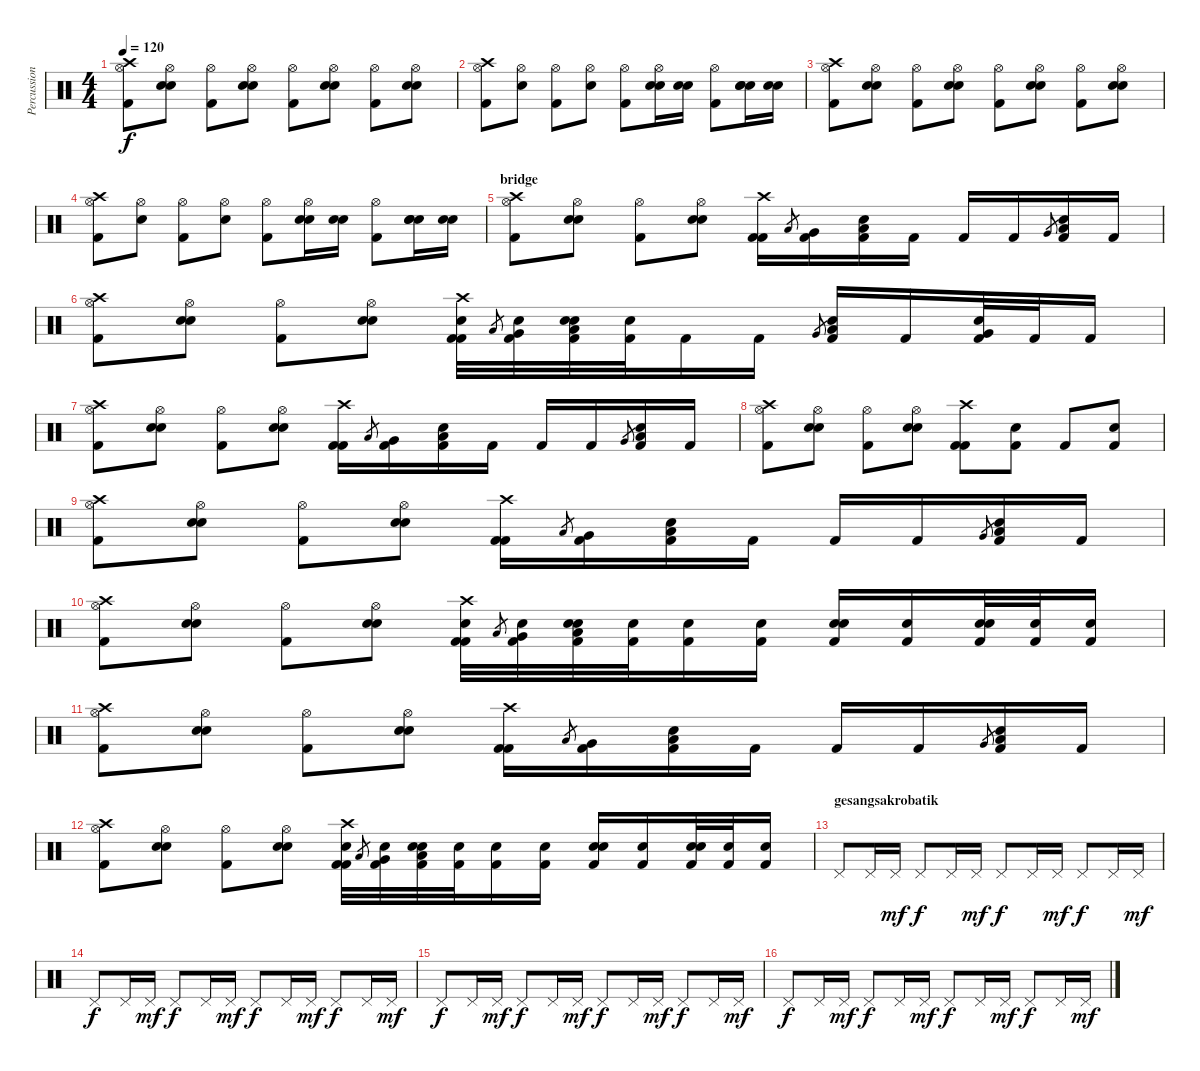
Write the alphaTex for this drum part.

\track ("Percussion" "Percussion") {instrument percussion}
\staff {score}
\articulation defaults
\ts (4 4)
\tempo 120
\clef neutral
\ks c
("Hi-Hat (open)" "Crash high (hit)" "Kick (hit) 2").8{dy f} ("Hi-Hat (open)" "Electric Snare (hit)" "Snare (hit) 2").8 ("Hi-Hat (open)" "Kick (hit) 2").8 ("Hi-Hat (open)" "Electric Snare (hit)" "Snare (hit) 2").8 ("Hi-Hat (open)" "Kick (hit) 2").8 ("Hi-Hat (open)" "Electric Snare (hit)" "Snare (hit) 2").8 ("Hi-Hat (open)" "Kick (hit) 2").8 ("Hi-Hat (open)" "Electric Snare (hit)" "Snare (hit) 2").8 |
("Hi-Hat (open)" "Crash high (hit)" "Kick (hit) 2").8 ("Hi-Hat (open)" "Electric Snare (hit)").8 ("Hi-Hat (open)" "Kick (hit) 2").8 ("Hi-Hat (open)" "Electric Snare (hit)").8 ("Hi-Hat (open)" "Kick (hit) 2").8 ("Hi-Hat (open)" "Electric Snare (hit)" "Snare (hit) 2").16 ("Electric Snare (hit)" "Snare (hit) 2").16 ("Hi-Hat (open)" "Kick (hit) 2").8 ("Electric Snare (hit)" "Electric Snare (hit)" "Snare (hit) 2").16 ("Electric Snare (hit)" "Snare (hit) 2").16 |
("Hi-Hat (open)" "Crash high (hit)" "Kick (hit) 2").8 ("Hi-Hat (open)" "Electric Snare (hit)" "Snare (hit) 2").8 ("Hi-Hat (open)" "Kick (hit) 2").8 ("Hi-Hat (open)" "Electric Snare (hit)" "Snare (hit) 2").8 ("Hi-Hat (open)" "Kick (hit) 2").8 ("Hi-Hat (open)" "Electric Snare (hit)" "Snare (hit) 2").8 ("Hi-Hat (open)" "Kick (hit) 2").8 ("Hi-Hat (open)" "Electric Snare (hit)" "Snare (hit) 2").8 |
("Hi-Hat (open)" "Crash high (hit)" "Kick (hit) 2").8 ("Hi-Hat (open)" "Electric Snare (hit)").8 ("Hi-Hat (open)" "Kick (hit) 2").8 ("Hi-Hat (open)" "Electric Snare (hit)").8 ("Hi-Hat (open)" "Kick (hit) 2").8 ("Hi-Hat (open)" "Electric Snare (hit)" "Snare (hit) 2").16 ("Electric Snare (hit)" "Snare (hit) 2").16 ("Hi-Hat (open)" "Kick (hit) 2").8 ("Electric Snare (hit)" "Electric Snare (hit)" "Snare (hit) 2").16 ("Electric Snare (hit)" "Snare (hit) 2").16 |
\section ("" "bridge")
("Hi-Hat (open)" "Crash high (hit)" "Kick (hit) 2").8 ("Hi-Hat (open)" "Electric Snare (hit)" "Snare (hit) 2").8 ("Hi-Hat (open)" "Kick (hit) 2").8 ("Hi-Hat (open)" "Electric Snare (hit)" "Snare (hit) 2").8 ("Crash high (hit)" "Kick (hit) 2" "Kick (hit) 2").16 "Low Tom (hit)".8{gr} ("Very Low Tom (hit)" "Kick (hit) 2").16 ("Low Tom (hit)" "Electric Snare (hit)" "Kick (hit) 2").16 "Kick (hit) 2".16 "Kick (hit) 2".16 "Kick (hit) 2".16 "Very Low Tom (hit)".8{gr} ("Low Tom (hit)" "Electric Snare (hit)" "Kick (hit) 2").16 "Kick (hit) 2".16 |
("Hi-Hat (open)" "Crash high (hit)" "Kick (hit) 2").8 ("Hi-Hat (open)" "Electric Snare (hit)" "Snare (hit) 2").8 ("Hi-Hat (open)" "Kick (hit) 2").8 ("Hi-Hat (open)" "Electric Snare (hit)" "Snare (hit) 2").8 ("Electric Snare (hit)" "Crash high (hit)" "Kick (hit) 2" "Kick (hit) 2").32 "Low Tom (hit)".8{gr} ("Electric Snare (hit)" "Very Low Tom (hit)" "Kick (hit) 2").32 ("Electric Snare (hit)" "Low Tom (hit)" "Electric Snare (hit)" "Kick (hit) 2").32 ("Electric Snare (hit)" "Kick (hit) 2").32 "Kick (hit) 2".16 "Kick (hit) 2".16 "Very Low Tom (hit)".8{gr} ("Low Tom (hit)" "Electric Snare (hit)" "Kick (hit) 2").16 "Kick (hit) 2".16 ("Electric Snare (hit)" "Very Low Tom (hit)" "Kick (hit) 2").32 "Kick (hit) 2".32 "Kick (hit) 2".16 |
("Hi-Hat (open)" "Crash high (hit)" "Kick (hit) 2").8 ("Hi-Hat (open)" "Electric Snare (hit)" "Snare (hit) 2").8 ("Hi-Hat (open)" "Kick (hit) 2").8 ("Hi-Hat (open)" "Electric Snare (hit)" "Snare (hit) 2").8 ("Crash high (hit)" "Kick (hit) 2" "Kick (hit) 2").16 "Low Tom (hit)".8{gr} ("Very Low Tom (hit)" "Kick (hit) 2").16 ("Low Tom (hit)" "Electric Snare (hit)" "Kick (hit) 2").16 "Kick (hit) 2".16 "Kick (hit) 2".16 "Kick (hit) 2".16 "Very Low Tom (hit)".8{gr} ("Low Tom (hit)" "Electric Snare (hit)" "Kick (hit) 2").16 "Kick (hit) 2".16 |
("Hi-Hat (open)" "Crash high (hit)" "Kick (hit) 2").8 ("Hi-Hat (open)" "Electric Snare (hit)" "Snare (hit) 2").8 ("Hi-Hat (open)" "Kick (hit) 2").8 ("Hi-Hat (open)" "Electric Snare (hit)" "Snare (hit) 2").8 ("Crash high (hit)" "Kick (hit) 2" "Kick (hit) 2").8 ("Electric Snare (hit)" "Kick (hit) 2").8 "Kick (hit) 2".8 ("Electric Snare (hit)" "Kick (hit) 2").8 |
("Hi-Hat (open)" "Crash high (hit)" "Kick (hit) 2").8 ("Hi-Hat (open)" "Electric Snare (hit)" "Snare (hit) 2").8 ("Hi-Hat (open)" "Kick (hit) 2").8 ("Hi-Hat (open)" "Electric Snare (hit)" "Snare (hit) 2").8 ("Crash high (hit)" "Kick (hit) 2" "Kick (hit) 2").16 "Low Tom (hit)".8{gr} ("Very Low Tom (hit)" "Kick (hit) 2").16 ("Low Tom (hit)" "Electric Snare (hit)" "Kick (hit) 2").16 "Kick (hit) 2".16 "Kick (hit) 2".16 "Kick (hit) 2".16 "Very Low Tom (hit)".8{gr} ("Low Tom (hit)" "Electric Snare (hit)" "Kick (hit) 2").16 "Kick (hit) 2".16 |
("Hi-Hat (open)" "Crash high (hit)" "Kick (hit) 2").8 ("Hi-Hat (open)" "Electric Snare (hit)" "Snare (hit) 2").8 ("Hi-Hat (open)" "Kick (hit) 2").8 ("Hi-Hat (open)" "Electric Snare (hit)" "Snare (hit) 2").8 ("Electric Snare (hit)" "Crash high (hit)" "Kick (hit) 2" "Kick (hit) 2").32 "Low Tom (hit)".8{gr} ("Electric Snare (hit)" "Very Low Tom (hit)" "Kick (hit) 2").32 ("Electric Snare (hit)" "Low Tom (hit)" "Electric Snare (hit)" "Kick (hit) 2").32 ("Electric Snare (hit)" "Kick (hit) 2").32 ("Electric Snare (hit)" "Kick (hit) 2").16 ("Electric Snare (hit)" "Kick (hit) 2").16 ("Electric Snare (hit)" "Electric Snare (hit)" "Kick (hit) 2").16 ("Electric Snare (hit)" "Kick (hit) 2").16 ("Electric Snare (hit)" "Electric Snare (hit)" "Kick (hit) 2").32 ("Electric Snare (hit)" "Kick (hit) 2").32 ("Electric Snare (hit)" "Kick (hit) 2").16 |
("Hi-Hat (open)" "Crash high (hit)" "Kick (hit) 2").8 ("Hi-Hat (open)" "Electric Snare (hit)" "Snare (hit) 2").8 ("Hi-Hat (open)" "Kick (hit) 2").8 ("Hi-Hat (open)" "Electric Snare (hit)" "Snare (hit) 2").8 ("Crash high (hit)" "Kick (hit) 2" "Kick (hit) 2").16 "Low Tom (hit)".8{gr} ("Very Low Tom (hit)" "Kick (hit) 2").16 ("Low Tom (hit)" "Electric Snare (hit)" "Kick (hit) 2").16 "Kick (hit) 2".16 "Kick (hit) 2".16 "Kick (hit) 2".16 "Very Low Tom (hit)".8{gr} ("Low Tom (hit)" "Electric Snare (hit)" "Kick (hit) 2").16 "Kick (hit) 2".16 |
("Hi-Hat (open)" "Crash high (hit)" "Kick (hit) 2").8 ("Hi-Hat (open)" "Electric Snare (hit)" "Snare (hit) 2").8 ("Hi-Hat (open)" "Kick (hit) 2").8 ("Hi-Hat (open)" "Electric Snare (hit)" "Snare (hit) 2").8 ("Electric Snare (hit)" "Crash high (hit)" "Kick (hit) 2" "Kick (hit) 2").32 "Low Tom (hit)".8{gr} ("Electric Snare (hit)" "Very Low Tom (hit)" "Kick (hit) 2").32 ("Electric Snare (hit)" "Low Tom (hit)" "Electric Snare (hit)" "Kick (hit) 2").32 ("Electric Snare (hit)" "Kick (hit) 2").32 ("Electric Snare (hit)" "Kick (hit) 2").16 ("Electric Snare (hit)" "Kick (hit) 2").16 ("Electric Snare (hit)" "Electric Snare (hit)" "Kick (hit) 2").16 ("Electric Snare (hit)" "Kick (hit) 2").16 ("Electric Snare (hit)" "Electric Snare (hit)" "Kick (hit) 2").32 ("Electric Snare (hit)" "Kick (hit) 2").32 ("Electric Snare (hit)" "Kick (hit) 2").16 |
\section ("" "gesangsakrobatik")
"Pedal Hi-Hat (hit)".8 "Pedal Hi-Hat (hit)".16 "Pedal Hi-Hat (hit)".16{dy mf} "Pedal Hi-Hat (hit)".8{dy f} "Pedal Hi-Hat (hit)".16 "Pedal Hi-Hat (hit)".16{dy mf} "Pedal Hi-Hat (hit)".8{dy f} "Pedal Hi-Hat (hit)".16 "Pedal Hi-Hat (hit)".16{dy mf} "Pedal Hi-Hat (hit)".8{dy f} "Pedal Hi-Hat (hit)".16 "Pedal Hi-Hat (hit)".16{dy mf} |
"Pedal Hi-Hat (hit)".8{dy f} "Pedal Hi-Hat (hit)".16 "Pedal Hi-Hat (hit)".16{dy mf} "Pedal Hi-Hat (hit)".8{dy f} "Pedal Hi-Hat (hit)".16 "Pedal Hi-Hat (hit)".16{dy mf} "Pedal Hi-Hat (hit)".8{dy f} "Pedal Hi-Hat (hit)".16 "Pedal Hi-Hat (hit)".16{dy mf} "Pedal Hi-Hat (hit)".8{dy f} "Pedal Hi-Hat (hit)".16 "Pedal Hi-Hat (hit)".16{dy mf} |
"Pedal Hi-Hat (hit)".8{dy f} "Pedal Hi-Hat (hit)".16 "Pedal Hi-Hat (hit)".16{dy mf} "Pedal Hi-Hat (hit)".8{dy f} "Pedal Hi-Hat (hit)".16 "Pedal Hi-Hat (hit)".16{dy mf} "Pedal Hi-Hat (hit)".8{dy f} "Pedal Hi-Hat (hit)".16 "Pedal Hi-Hat (hit)".16{dy mf} "Pedal Hi-Hat (hit)".8{dy f} "Pedal Hi-Hat (hit)".16 "Pedal Hi-Hat (hit)".16{dy mf} |
"Pedal Hi-Hat (hit)".8{dy f} "Pedal Hi-Hat (hit)".16 "Pedal Hi-Hat (hit)".16{dy mf} "Pedal Hi-Hat (hit)".8{dy f} "Pedal Hi-Hat (hit)".16 "Pedal Hi-Hat (hit)".16{dy mf} "Pedal Hi-Hat (hit)".8{dy f} "Pedal Hi-Hat (hit)".16 "Pedal Hi-Hat (hit)".16{dy mf} "Pedal Hi-Hat (hit)".8{dy f} "Pedal Hi-Hat (hit)".16 "Pedal Hi-Hat (hit)".16{dy mf}
